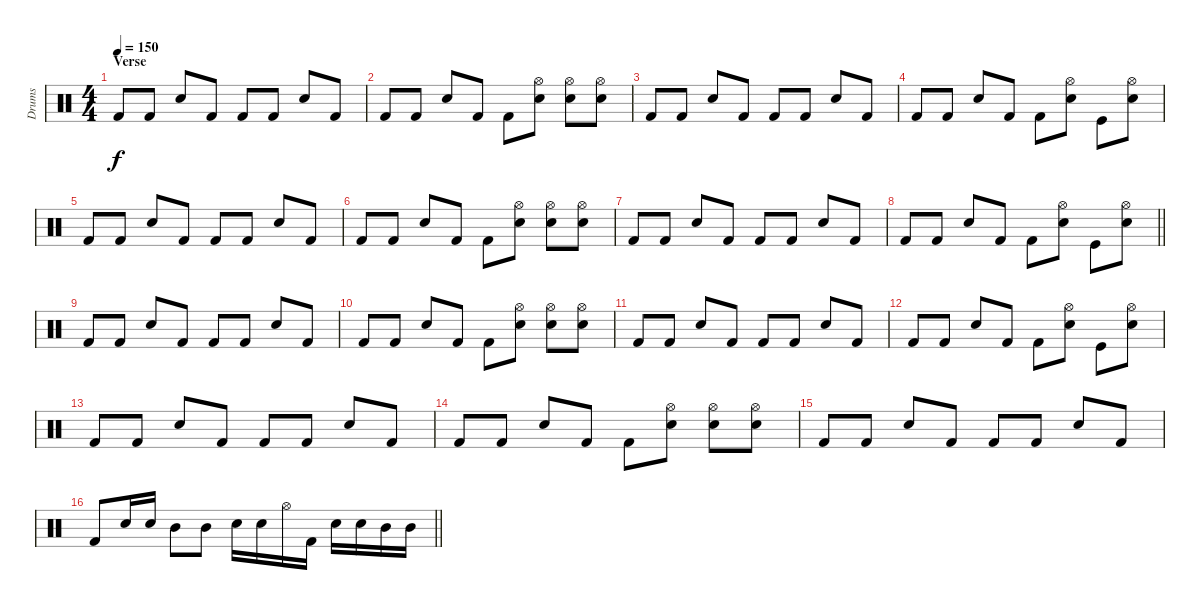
\track ("Drums" "Drums") {instrument percussion}
\staff {score}
\articulation defaults
\ts (4 4)
\section ("" "Verse")
\tempo 150
\clef neutral
\ks c "Kick (hit) 2".8{dy f} "Kick (hit) 2".8 "Snare (hit) 2".8 "Kick (hit) 2".8 "Kick (hit) 2".8 "Kick (hit) 2".8 "Snare (hit) 2".8 "Kick (hit) 2".8
|
"Kick (hit) 2".8 "Kick (hit) 2".8 "Snare (hit) 2".8 "Kick (hit) 2".8 "Kick (hit) 2".8 ("Hi-Hat (open)" "Snare (hit) 2").8 ("Hi-Hat (open)" "Snare (hit) 2").8 ("Hi-Hat (open)" "Snare (hit) 2").8 |
"Kick (hit) 2".8 "Kick (hit) 2".8 "Snare (hit) 2".8 "Kick (hit) 2".8 "Kick (hit) 2".8 "Kick (hit) 2".8 "Snare (hit) 2".8 "Kick (hit) 2".8 |
"Kick (hit) 2".8 "Kick (hit) 2".8 "Snare (hit) 2".8 "Kick (hit) 2".8 "Kick (hit) 2".8 ("Hi-Hat (open)" "Snare (hit) 2").8 "Kick (hit)".8 ("Hi-Hat (open)" "Snare (hit) 2").8 |
"Kick (hit) 2".8 "Kick (hit) 2".8 "Snare (hit) 2".8 "Kick (hit) 2".8 "Kick (hit) 2".8 "Kick (hit) 2".8 "Snare (hit) 2".8 "Kick (hit) 2".8 |
"Kick (hit) 2".8 "Kick (hit) 2".8 "Snare (hit) 2".8 "Kick (hit) 2".8 "Kick (hit) 2".8 ("Hi-Hat (open)" "Snare (hit) 2").8 ("Hi-Hat (open)" "Snare (hit) 2").8 ("Hi-Hat (open)" "Snare (hit) 2").8 |
"Kick (hit) 2".8 "Kick (hit) 2".8 "Snare (hit) 2".8 "Kick (hit) 2".8 "Kick (hit) 2".8 "Kick (hit) 2".8 "Snare (hit) 2".8 "Kick (hit) 2".8 |
\barLineRight lightlight "Kick (hit) 2".8 "Kick (hit) 2".8 "Snare (hit) 2".8 "Kick (hit) 2".8 "Kick (hit) 2".8
("Hi-Hat (open)" "Snare (hit) 2").8 "Kick (hit)".8 ("Hi-Hat (open)" "Snare (hit) 2").8 |
\section ("" "")
"Kick (hit) 2".8 "Kick (hit) 2".8 "Snare (hit) 2".8 "Kick (hit) 2".8 "Kick (hit) 2".8 "Kick (hit) 2".8 "Snare (hit) 2".8 "Kick (hit) 2".8 |
"Kick (hit) 2".8 "Kick (hit) 2".8 "Snare (hit) 2".8 "Kick (hit) 2".8 "Kick (hit) 2".8 ("Hi-Hat (open)" "Snare (hit) 2").8 ("Hi-Hat (open)" "Snare (hit) 2").8 ("Hi-Hat (open)" "Snare (hit) 2").8 |
"Kick (hit) 2".8 "Kick (hit) 2".8 "Snare (hit) 2".8 "Kick (hit) 2".8 "Kick (hit) 2".8 "Kick (hit) 2".8 "Snare (hit) 2".8 "Kick (hit) 2".8 |
"Kick (hit) 2".8 "Kick (hit) 2".8 "Snare (hit) 2".8 "Kick (hit) 2".8 "Kick (hit) 2".8 ("Hi-Hat (open)" "Snare (hit) 2").8 "Kick (hit)".8 ("Hi-Hat (open)" "Snare (hit) 2").8 |
"Kick (hit) 2".8 "Kick (hit) 2".8 "Snare (hit) 2".8 "Kick (hit) 2".8 "Kick (hit) 2".8 "Kick (hit) 2".8 "Snare (hit) 2".8 "Kick (hit) 2".8 |
"Kick (hit) 2".8 "Kick (hit) 2".8 "Snare (hit) 2".8 "Kick (hit) 2".8 "Kick (hit) 2".8 ("Hi-Hat (open)" "Snare (hit) 2").8 ("Hi-Hat (open)" "Snare (hit) 2").8 ("Hi-Hat (open)" "Snare (hit) 2").8 |
"Kick (hit) 2".8 "Kick (hit) 2".8 "Snare (hit) 2".8 "Kick (hit) 2".8 "Kick (hit) 2".8 "Kick (hit) 2".8 "Snare (hit) 2".8 "Kick (hit) 2".8 |
\barLineRight lightlight "Kick (hit) 2".8 "Snare (hit) 2".16 "Snare (hit) 2".16 "Mid Tom (hit)".8 "Mid Tom (hit)".8 "Snare (hit) 2".16 "Snare (hit) 2".16 "Hi-Hat (open)".16 "Kick (hit) 2".16 "Snare (hit) 2".16 "Snare (hit) 2".16 "Mid Tom (hit)".16 "Mid Tom (hit)".16
